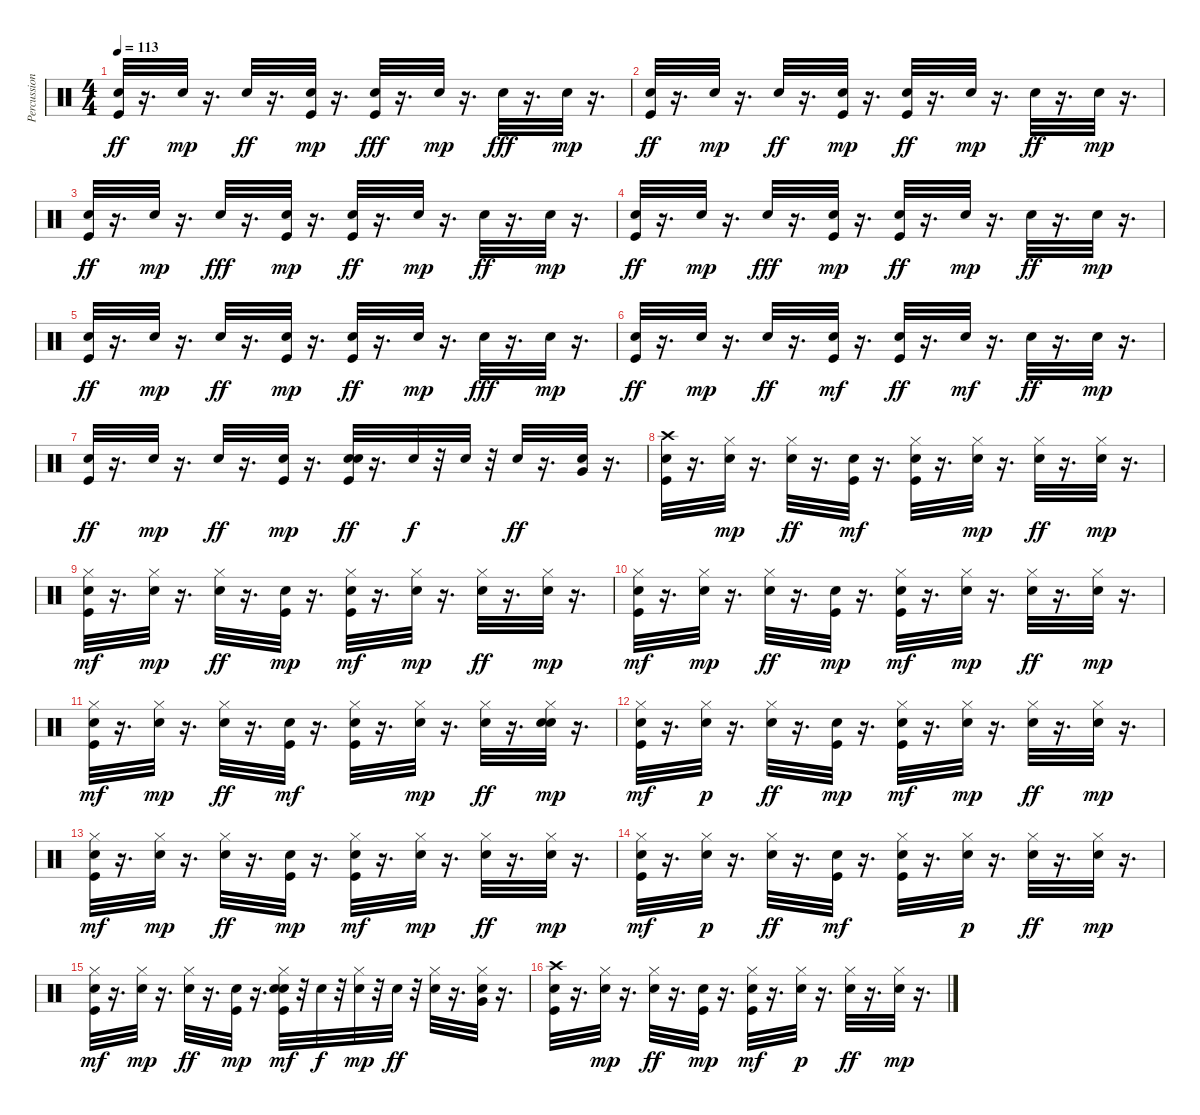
\track ("Percussions" "Percussion") {instrument percussion}
\staff {score}
\articulation defaults
\ts (4 4)
\tempo 113
\clef neutral
\ks c
("Kick (hit)" "Snare (hit) 2").32{dy ff} r.16{d} "Snare (hit) 2".32{dy mp} r.16{d} "Hand Clap (hit)".32{dy ff} r.16{d} ("Kick (hit)" "Snare (hit) 2").32{dy mp} r.16{d} ("Kick (hit)" "Snare (hit) 2").32{dy fff} r.16{d} "Snare (hit) 2".32{dy mp} r.16{d} "Hand Clap (hit)".32{dy fff} r.16{d} "Snare (hit) 2".32{dy mp} r.16{d} |
("Kick (hit)" "Snare (hit) 2").32{dy ff} r.16{d} "Snare (hit) 2".32{dy mp} r.16{d} "Hand Clap (hit)".32{dy ff} r.16{d} ("Kick (hit)" "Snare (hit) 2").32{dy mp} r.16{d} ("Kick (hit)" "Snare (hit) 2").32{dy ff} r.16{d} "Snare (hit) 2".32{dy mp} r.16{d} "Hand Clap (hit)".32{dy ff} r.16{d} "Snare (hit) 2".32{dy mp} r.16{d} |
("Kick (hit)" "Snare (hit) 2").32{dy ff} r.16{d} "Snare (hit) 2".32{dy mp} r.16{d} "Hand Clap (hit)".32{dy fff} r.16{d} ("Kick (hit)" "Snare (hit) 2").32{dy mp} r.16{d} ("Kick (hit)" "Snare (hit) 2").32{dy ff} r.16{d} "Snare (hit) 2".32{dy mp} r.16{d} "Hand Clap (hit)".32{dy ff} r.16{d} "Snare (hit) 2".32{dy mp} r.16{d} |
("Kick (hit)" "Snare (hit) 2").32{dy ff} r.16{d} "Snare (hit) 2".32{dy mp} r.16{d} "Hand Clap (hit)".32{dy fff} r.16{d} ("Kick (hit)" "Snare (hit) 2").32{dy mp} r.16{d} ("Kick (hit)" "Snare (hit) 2").32{dy ff} r.16{d} "Snare (hit) 2".32{dy mp} r.16{d} "Hand Clap (hit)".32{dy ff} r.16{d} "Snare (hit) 2".32{dy mp} r.16{d} |
("Kick (hit)" "Snare (hit) 2").32{dy ff} r.16{d} "Snare (hit) 2".32{dy mp} r.16{d} "Hand Clap (hit)".32{dy ff} r.16{d} ("Kick (hit)" "Snare (hit) 2").32{dy mp} r.16{d} ("Kick (hit)" "Snare (hit) 2").32{dy ff} r.16{d} "Snare (hit) 2".32{dy mp} r.16{d} "Hand Clap (hit)".32{dy fff} r.16{d} "Snare (hit) 2".32{dy mp} r.16{d} |
("Kick (hit)" "Snare (hit) 2").32{dy ff} r.16{d} "Snare (hit) 2".32{dy mp} r.16{d} "Hand Clap (hit)".32{dy ff} r.16{d} ("Kick (hit)" "Snare (hit) 2").32{dy mf} r.16{d} ("Kick (hit)" "Snare (hit) 2").32{dy ff} r.16{d} "Snare (hit) 2".32{dy mf} r.16{d} "Hand Clap (hit)".32{dy ff} r.16{d} "Snare (hit) 2".32{dy mp} r.16{d} |
("Kick (hit)" "Snare (hit) 2").32{dy ff} r.16{d} "Snare (hit) 2".32{dy mp} r.16{d} "Hand Clap (hit)".32{dy ff} r.16{d} ("Kick (hit)" "Snare (hit) 2").32{dy mp} r.16{d} ("Kick (hit)" "Snare (hit) 2" "Hand Clap (hit)").32{dy ff} r.16{d} "Snare (hit) 2".32{dy f} r.32 "Snare (hit) 2".32 r.32 "Hand Clap (hit)".32{dy ff} r.16{d} ("Snare (hit) 2" "Very Low Tom (hit)").32 r.16{d} |
("Kick (hit)" "Snare (hit) 2" "Crash high (hit)").32 r.16{d} ("Snare (hit) 2" "Hi-Hat (closed)").32{dy mp} r.16{d} ("Hand Clap (hit)" "Hi-Hat (closed)").32{dy ff} r.16{d} ("Kick (hit)" "Snare (hit) 2").32{dy mf} r.16{d} ("Kick (hit)" "Snare (hit) 2" "Hi-Hat (closed)").32 r.16{d} ("Snare (hit) 2" "Hi-Hat (closed)").32{dy mp} r.16{d} ("Hand Clap (hit)" "Hi-Hat (closed)").32{dy ff} r.16{d} ("Snare (hit) 2" "Hi-Hat (closed)").32{dy mp} r.16{d} |
("Kick (hit)" "Snare (hit) 2" "Hi-Hat (closed)").32{dy mf} r.16{d} ("Snare (hit) 2" "Hi-Hat (closed)").32{dy mp} r.16{d} ("Hand Clap (hit)" "Hi-Hat (closed)").32{dy ff} r.16{d} ("Kick (hit)" "Snare (hit) 2").32{dy mp} r.16{d} ("Kick (hit)" "Snare (hit) 2" "Hi-Hat (closed)").32{dy mf} r.16{d} ("Snare (hit) 2" "Hi-Hat (closed)").32{dy mp} r.16{d} ("Hand Clap (hit)" "Hi-Hat (closed)").32{dy ff} r.16{d} ("Snare (hit) 2" "Hi-Hat (closed)").32{dy mp} r.16{d} |
("Kick (hit)" "Snare (hit) 2" "Hi-Hat (closed)").32{dy mf} r.16{d} ("Snare (hit) 2" "Hi-Hat (closed)").32{dy mp} r.16{d} ("Hand Clap (hit)" "Hi-Hat (closed)").32{dy ff} r.16{d} ("Kick (hit)" "Snare (hit) 2").32{dy mp} r.16{d} ("Kick (hit)" "Snare (hit) 2" "Hi-Hat (closed)").32{dy mf} r.16{d} ("Snare (hit) 2" "Hi-Hat (closed)").32{dy mp} r.16{d} ("Hand Clap (hit)" "Hi-Hat (closed)").32{dy ff} r.16{d} ("Snare (hit) 2" "Hi-Hat (closed)").32{dy mp} r.16{d} |
("Kick (hit)" "Snare (hit) 2" "Hi-Hat (closed)").32{dy mf} r.16{d} ("Snare (hit) 2" "Hi-Hat (closed)").32{dy mp} r.16{d} ("Hand Clap (hit)" "Hi-Hat (closed)").32{dy ff} r.16{d} ("Kick (hit)" "Snare (hit) 2").32{dy mf} r.16{d} ("Kick (hit)" "Snare (hit) 2" "Hi-Hat (closed)").32 r.16{d} ("Snare (hit) 2" "Hi-Hat (closed)").32{dy mp} r.16{d} ("Hand Clap (hit)" "Hi-Hat (closed)").32{dy ff} r.16{d} ("Snare (hit) 2" "Hand Clap (hit)" "Hi-Hat (closed)").32{dy mp} r.16{d} |
("Kick (hit)" "Snare (hit) 2" "Hi-Hat (closed)").32{dy mf} r.16{d} ("Snare (hit) 2" "Hi-Hat (closed)").32{dy p} r.16{d} ("Hand Clap (hit)" "Hi-Hat (closed)").32{dy ff} r.16{d} ("Kick (hit)" "Snare (hit) 2").32{dy mp} r.16{d} ("Kick (hit)" "Snare (hit) 2" "Hi-Hat (closed)").32{dy mf} r.16{d} ("Snare (hit) 2" "Hi-Hat (closed)").32{dy mp} r.16{d} ("Hand Clap (hit)" "Hi-Hat (closed)").32{dy ff} r.16{d} ("Snare (hit) 2" "Hi-Hat (closed)").32{dy mp} r.16{d} |
("Kick (hit)" "Snare (hit) 2" "Hi-Hat (closed)").32{dy mf} r.16{d} ("Snare (hit) 2" "Hi-Hat (closed)").32{dy mp} r.16{d} ("Hand Clap (hit)" "Hi-Hat (closed)").32{dy ff} r.16{d} ("Kick (hit)" "Snare (hit) 2").32{dy mp} r.16{d} ("Kick (hit)" "Snare (hit) 2" "Hi-Hat (closed)").32{dy mf} r.16{d} ("Snare (hit) 2" "Hi-Hat (closed)").32{dy mp} r.16{d} ("Hand Clap (hit)" "Hi-Hat (closed)").32{dy ff} r.16{d} ("Snare (hit) 2" "Hi-Hat (closed)").32{dy mp} r.16{d} |
("Kick (hit)" "Snare (hit) 2" "Hi-Hat (closed)").32{dy mf} r.16{d} ("Snare (hit) 2" "Hi-Hat (closed)").32{dy p} r.16{d} ("Hand Clap (hit)" "Hi-Hat (closed)").32{dy ff} r.16{d} ("Kick (hit)" "Snare (hit) 2").32{dy mf} r.16{d} ("Kick (hit)" "Snare (hit) 2" "Hi-Hat (closed)").32 r.16{d} ("Snare (hit) 2" "Hi-Hat (closed)").32{dy p} r.16{d} ("Hand Clap (hit)" "Hi-Hat (closed)").32{dy ff} r.16{d} ("Snare (hit) 2" "Hi-Hat (closed)").32{dy mp} r.16{d} |
("Kick (hit)" "Snare (hit) 2" "Hi-Hat (closed)").32{dy mf} r.16{d} ("Snare (hit) 2" "Hi-Hat (closed)").32{dy mp} r.16{d} ("Hand Clap (hit)" "Hi-Hat (closed)").32{dy ff} r.16{d} ("Kick (hit)" "Snare (hit) 2").32{dy mp} r.16{d} ("Kick (hit)" "Snare (hit) 2" "Hand Clap (hit)" "Hi-Hat (closed)").32{dy mf} r.32 "Snare (hit) 2".32{dy f} r.32 ("Snare (hit) 2" "Hi-Hat (closed)").32{dy mp} r.32 "Snare (hit) 2".32{dy ff} r.32 ("Hand Clap (hit)" "Hi-Hat (closed)").32 r.16{d} ("Snare (hit) 2" "Hi-Hat (closed)" "Very Low Tom (hit)").32 r.16{d} |
("Kick (hit)" "Snare (hit) 2" "Crash high (hit)").32 r.16{d} ("Snare (hit) 2" "Hi-Hat (closed)").32{dy mp} r.16{d} ("Hand Clap (hit)" "Hi-Hat (closed)").32{dy ff} r.16{d} ("Kick (hit)" "Snare (hit) 2").32{dy mp} r.16{d} ("Kick (hit)" "Snare (hit) 2" "Hi-Hat (closed)").32{dy mf} r.16{d} ("Snare (hit) 2" "Hi-Hat (closed)").32{dy p} r.16{d} ("Hand Clap (hit)" "Hi-Hat (closed)").32{dy ff} r.16{d} ("Snare (hit) 2" "Hi-Hat (closed)").32{dy mp} r.16{d}
